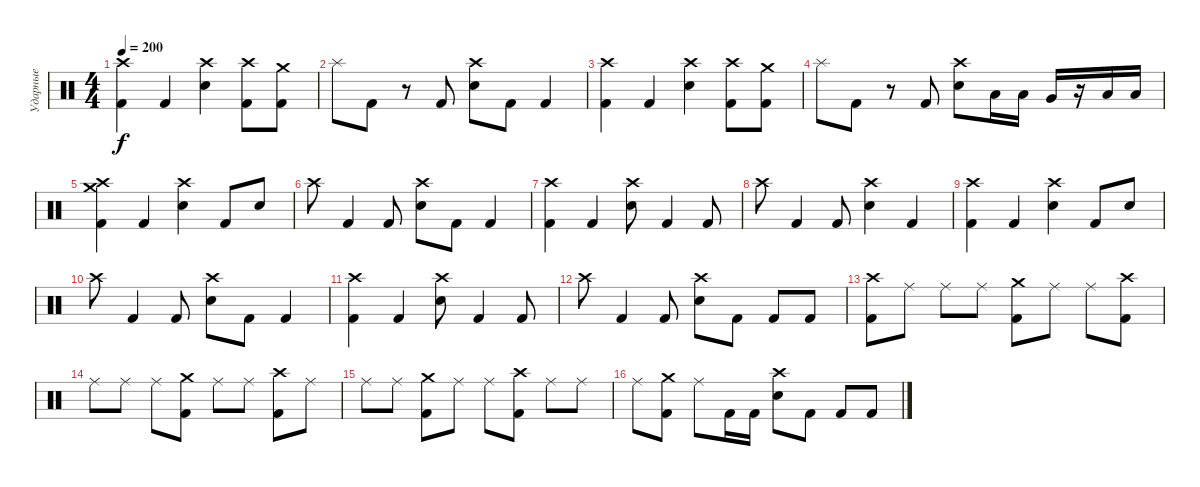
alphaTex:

\track ("Ударные" "Ударные") {instrument percussion}
\staff {score}
\articulation defaults
\ts (4 4)
\tempo 200
\clef neutral
\ks c
("Crash high (hit)" "Kick (hit) 2").4{dy f} "Kick (hit) 2".4 ("Crash high (hit)" "Snare (hit) 2").4 ("Crash high (hit)" "Kick (hit) 2").8 ("Crash medium (hit)" "Kick (hit) 2").8 |
"Splash (hit)".8 "Kick (hit) 2".8 r.8 "Kick (hit) 2".8 ("Crash high (hit)" "Snare (hit) 2").8 "Kick (hit) 2".8 "Kick (hit) 2".4 |
("Crash high (hit)" "Kick (hit) 2").4 "Kick (hit) 2".4 ("Crash high (hit)" "Snare (hit) 2").4 ("Crash high (hit)" "Kick (hit) 2").8 ("Crash medium (hit)" "Kick (hit) 2").8 |
"Splash (hit)".8 "Kick (hit) 2".8 r.8 "Kick (hit) 2".8 ("Crash high (hit)" "Snare (hit) 2").8 "Low Tom (hit)".16 "Low Tom (hit)".16 "Very Low Tom (hit)".16 r.16 "Low Floor Tom (hit)".16 "Low Floor Tom (hit)".16 |
("Crash high (hit)" "Crash medium (hit)" "Kick (hit) 2").4 "Kick (hit) 2".4 ("Crash high (hit)" "Snare (hit) 2").4 "Kick (hit) 2".8 "Snare (hit) 2".8 |
"Crash high (hit)".8 "Kick (hit) 2".4 "Kick (hit) 2".8 ("Crash high (hit)" "Snare (hit) 2").8 "Kick (hit) 2".8 "Kick (hit) 2".4 |
("Crash high (hit)" "Kick (hit) 2").4 "Kick (hit) 2".4 ("Crash high (hit)" "Snare (hit) 2").8 "Kick (hit) 2".4 "Kick (hit) 2".8 |
"Crash high (hit)".8 "Kick (hit) 2".4 "Kick (hit) 2".8 ("Crash high (hit)" "Snare (hit) 2").4 "Kick (hit) 2".4 |
("Crash high (hit)" "Kick (hit) 2").4 "Kick (hit) 2".4 ("Crash high (hit)" "Snare (hit) 2").4 "Kick (hit) 2".8 "Snare (hit) 2".8 |
"Crash high (hit)".8 "Kick (hit) 2".4 "Kick (hit) 2".8 ("Crash high (hit)" "Snare (hit) 2").8 "Kick (hit) 2".8 "Kick (hit) 2".4 |
("Crash high (hit)" "Kick (hit) 2").4 "Kick (hit) 2".4 ("Crash high (hit)" "Snare (hit) 2").8 "Kick (hit) 2".4 "Kick (hit) 2".8 |
"Crash high (hit)".8 "Kick (hit) 2".4 "Kick (hit) 2".8 ("Crash high (hit)" "Snare (hit) 2").8 "Kick (hit) 2".8 "Kick (hit) 2".8 "Kick (hit) 2".8 |
("Crash high (hit)" "Kick (hit) 2").8 "Ride (middle)".8 "Ride (middle)".8 "Ride (middle)".8 ("Crash medium (hit)" "Kick (hit) 2").8 "Ride (middle)".8 "Ride (middle)".8 ("Crash high (hit)" "Kick (hit) 2").8 |
"Ride (middle)".8 "Ride (middle)".8 "Ride (middle)".8 ("Crash medium (hit)" "Kick (hit) 2").8 "Ride (middle)".8 "Ride (middle)".8 ("Crash high (hit)" "Kick (hit) 2").8 "Ride (middle)".8 |
"Ride (middle)".8 "Ride (middle)".8 ("Crash medium (hit)" "Kick (hit) 2").8 "Ride (middle)".8 "Ride (middle)".8 ("Crash high (hit)" "Kick (hit) 2").8 "Ride (middle)".8 "Ride (middle)".8 |
"Ride (middle)".8 ("Crash medium (hit)" "Kick (hit) 2").8 "Ride (middle)".8 "Kick (hit) 2".16 "Kick (hit) 2".16 ("Crash high (hit)" "Snare (hit) 2").8 "Kick (hit) 2".8 "Kick (hit) 2".8 "Kick (hit) 2".8
